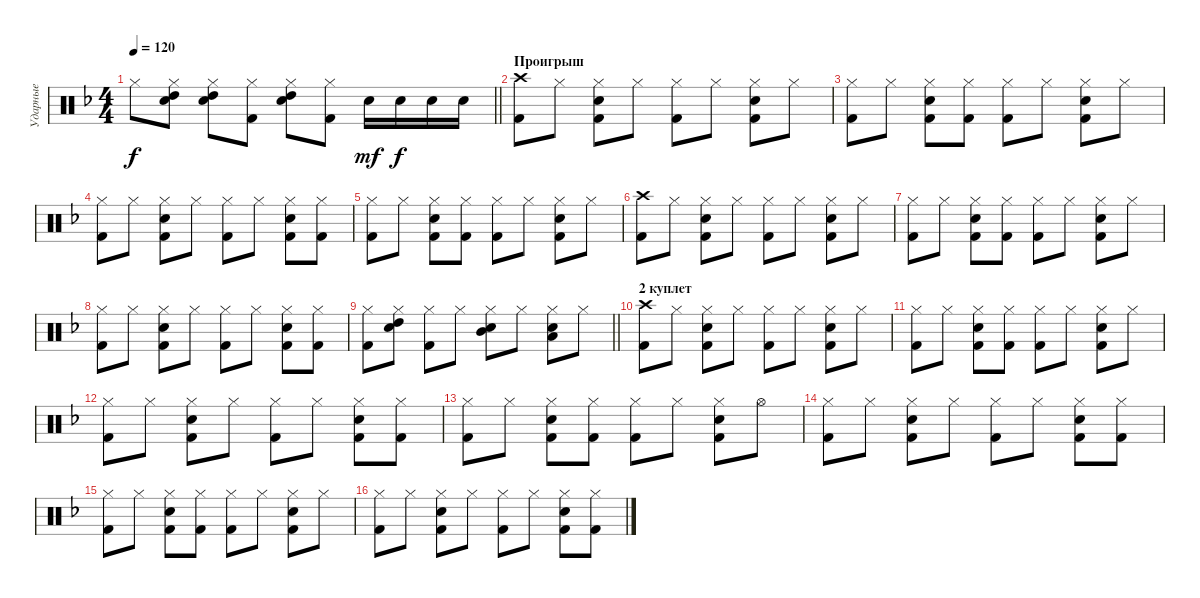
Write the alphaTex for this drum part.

\track ("Ударные" "Ударные") {instrument percussion}
\staff {score}
\articulation defaults
\ts (4 4)
\tempo 120
\clef neutral
\barLineRight lightlight
\ks f "Hi-Hat (closed)".8{dy f}
("High Tom (hit)" "Hi-Hat (closed)" "Electric Snare (hit)").8 ("High Tom (hit)" "Hi-Hat (closed)" "Electric Snare (hit)").8 ("Kick (hit) 2" "Hi-Hat (closed)").8 ("High Tom (hit)" "Hi-Hat (closed)" "Electric Snare (hit)").8 ("Kick (hit) 2" "Hi-Hat (closed)").8 "Electric Snare (hit)".16{dy mf} "Electric Snare (hit)".16{dy f} "Electric Snare (hit)".16 "Electric Snare (hit)".16 |
\section ("" "Проигрыш")
("Kick (hit) 2" "Crash high (hit)").8 "Hi-Hat (closed)".8 ("Kick (hit) 2" "Electric Snare (hit)" "Hi-Hat (closed)").8 "Hi-Hat (closed)".8 ("Kick (hit) 2" "Hi-Hat (closed)").8 "Hi-Hat (closed)".8 ("Kick (hit) 2" "Electric Snare (hit)" "Hi-Hat (closed)").8 "Hi-Hat (closed)".8 |
("Kick (hit) 2" "Hi-Hat (closed)").8 "Hi-Hat (closed)".8 ("Kick (hit) 2" "Electric Snare (hit)" "Hi-Hat (closed)").8 ("Kick (hit) 2" "Hi-Hat (closed)").8 ("Kick (hit) 2" "Hi-Hat (closed)").8 "Hi-Hat (closed)".8 ("Kick (hit) 2" "Electric Snare (hit)" "Hi-Hat (closed)").8 "Hi-Hat (closed)".8 |
("Kick (hit) 2" "Hi-Hat (closed)").8 "Hi-Hat (closed)".8 ("Kick (hit) 2" "Electric Snare (hit)" "Hi-Hat (closed)").8 "Hi-Hat (closed)".8 ("Kick (hit) 2" "Hi-Hat (closed)").8 "Hi-Hat (closed)".8 ("Kick (hit) 2" "Electric Snare (hit)" "Hi-Hat (closed)").8 ("Kick (hit) 2" "Hi-Hat (closed)").8 |
("Kick (hit) 2" "Hi-Hat (closed)").8 "Hi-Hat (closed)".8 ("Kick (hit) 2" "Electric Snare (hit)" "Hi-Hat (closed)").8 ("Kick (hit) 2" "Hi-Hat (closed)").8 ("Kick (hit) 2" "Hi-Hat (closed)").8 "Hi-Hat (closed)".8 ("Kick (hit) 2" "Electric Snare (hit)" "Hi-Hat (closed)").8 "Hi-Hat (closed)".8 |
("Kick (hit) 2" "Crash high (hit)").8 "Hi-Hat (closed)".8 ("Kick (hit) 2" "Electric Snare (hit)" "Hi-Hat (closed)").8 "Hi-Hat (closed)".8 ("Kick (hit) 2" "Hi-Hat (closed)").8 "Hi-Hat (closed)".8 ("Kick (hit) 2" "Electric Snare (hit)" "Hi-Hat (closed)").8 "Hi-Hat (closed)".8 |
("Kick (hit) 2" "Hi-Hat (closed)").8 "Hi-Hat (closed)".8 ("Kick (hit) 2" "Electric Snare (hit)" "Hi-Hat (closed)").8 ("Kick (hit) 2" "Hi-Hat (closed)").8 ("Kick (hit) 2" "Hi-Hat (closed)").8 "Hi-Hat (closed)".8 ("Kick (hit) 2" "Electric Snare (hit)" "Hi-Hat (closed)").8 "Hi-Hat (closed)".8 |
("Kick (hit) 2" "Hi-Hat (closed)").8 "Hi-Hat (closed)".8 ("Kick (hit) 2" "Electric Snare (hit)" "Hi-Hat (closed)").8 "Hi-Hat (closed)".8 ("Kick (hit) 2" "Hi-Hat (closed)").8 "Hi-Hat (closed)".8 ("Kick (hit) 2" "Electric Snare (hit)" "Hi-Hat (closed)").8 ("Kick (hit) 2" "Hi-Hat (closed)").8 |
\barLineRight lightlight
("Kick (hit) 2" "Hi-Hat (closed)").8 ("High Tom (hit)" "Hi-Hat (closed)" "Electric Snare (hit)").8 ("Kick (hit) 2" "Hi-Hat (closed)").8 "Hi-Hat (closed)".8 ("Mid Tom (hit)" "Electric Snare (hit)" "Hi-Hat (closed)").8 "Hi-Hat (closed)".8 ("Low Tom (hit)" "Electric Snare (hit)" "Hi-Hat (closed)").8 "Hi-Hat (closed)".8 |
\section ("" "2 куплет")
("Kick (hit) 2" "Crash high (hit)").8 "Hi-Hat (closed)".8 ("Kick (hit) 2" "Electric Snare (hit)" "Hi-Hat (closed)").8 "Hi-Hat (closed)".8 ("Kick (hit) 2" "Hi-Hat (closed)").8 "Hi-Hat (closed)".8 ("Kick (hit) 2" "Electric Snare (hit)" "Hi-Hat (closed)").8 "Hi-Hat (closed)".8 |
("Kick (hit) 2" "Hi-Hat (closed)").8 "Hi-Hat (closed)".8 ("Kick (hit) 2" "Electric Snare (hit)" "Hi-Hat (closed)").8 ("Kick (hit) 2" "Hi-Hat (closed)").8 ("Kick (hit) 2" "Hi-Hat (closed)").8 "Hi-Hat (closed)".8 ("Kick (hit) 2" "Electric Snare (hit)" "Hi-Hat (closed)").8 "Hi-Hat (closed)".8 |
("Kick (hit) 2" "Hi-Hat (closed)").8 "Hi-Hat (closed)".8 ("Kick (hit) 2" "Electric Snare (hit)" "Hi-Hat (closed)").8 "Hi-Hat (closed)".8 ("Kick (hit) 2" "Hi-Hat (closed)").8 "Hi-Hat (closed)".8 ("Kick (hit) 2" "Electric Snare (hit)" "Hi-Hat (closed)").8 ("Kick (hit) 2" "Hi-Hat (closed)").8 |
("Kick (hit) 2" "Hi-Hat (closed)").8 "Hi-Hat (closed)".8 ("Kick (hit) 2" "Electric Snare (hit)" "Hi-Hat (closed)").8 ("Kick (hit) 2" "Hi-Hat (closed)").8 ("Kick (hit) 2" "Hi-Hat (closed)").8 "Hi-Hat (closed)".8 ("Kick (hit) 2" "Electric Snare (hit)" "Hi-Hat (closed)").8 "Hi-Hat (open)".8 |
("Kick (hit) 2" "Hi-Hat (closed)").8 "Hi-Hat (closed)".8 ("Kick (hit) 2" "Electric Snare (hit)" "Hi-Hat (closed)").8 "Hi-Hat (closed)".8 ("Kick (hit) 2" "Hi-Hat (closed)").8 "Hi-Hat (closed)".8 ("Kick (hit) 2" "Electric Snare (hit)" "Hi-Hat (closed)").8 ("Kick (hit) 2" "Hi-Hat (closed)").8 |
("Kick (hit) 2" "Hi-Hat (closed)").8 "Hi-Hat (closed)".8 ("Kick (hit) 2" "Electric Snare (hit)" "Hi-Hat (closed)").8 ("Kick (hit) 2" "Hi-Hat (closed)").8 ("Kick (hit) 2" "Hi-Hat (closed)").8 "Hi-Hat (closed)".8 ("Kick (hit) 2" "Electric Snare (hit)" "Hi-Hat (closed)").8 "Hi-Hat (closed)".8 |
("Kick (hit) 2" "Hi-Hat (closed)").8 "Hi-Hat (closed)".8 ("Kick (hit) 2" "Electric Snare (hit)" "Hi-Hat (closed)").8 "Hi-Hat (closed)".8 ("Kick (hit) 2" "Hi-Hat (closed)").8 "Hi-Hat (closed)".8 ("Kick (hit) 2" "Electric Snare (hit)" "Hi-Hat (closed)").8 ("Kick (hit) 2" "Hi-Hat (closed)").8
